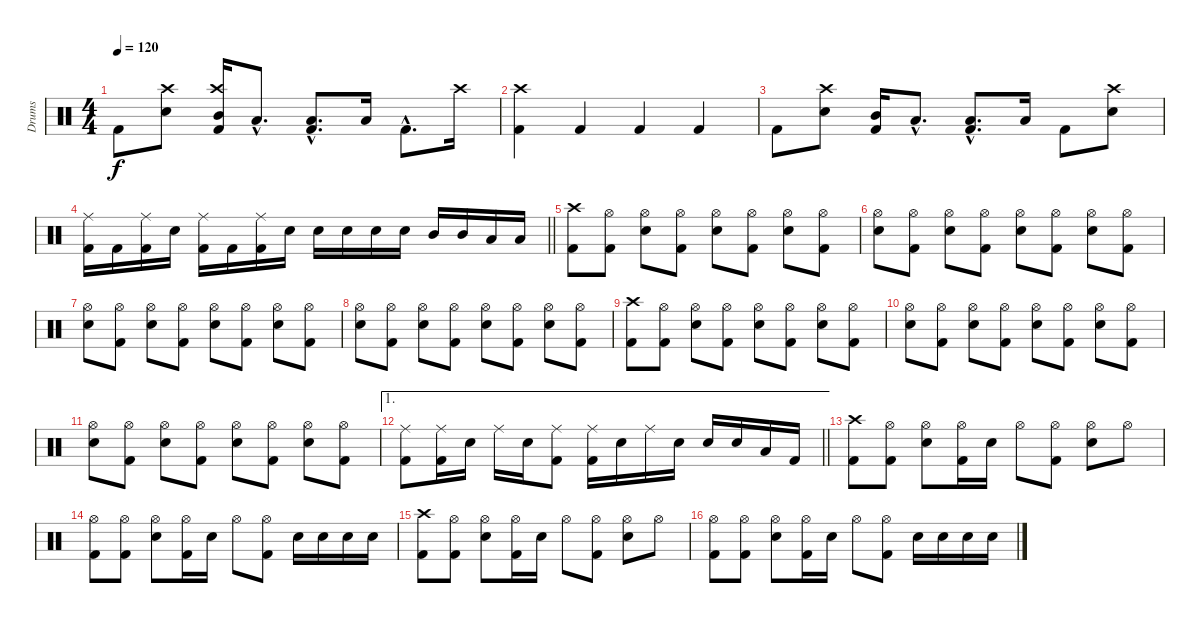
\track ("Drums" "Drums") {instrument percussion}
\staff {score}
\articulation defaults
\ts (4 4)
\tempo 120
\clef neutral
\ks c "Kick (hit) 2".8{dy f}
("Crash high (hit)" "Snare (hit) 2").8 ("Crash high (hit)" "Mid Tom (hit)" "Kick (hit) 2").16 "Low Floor Tom (hit)"{hac}.8{d} ("Low Floor Tom (hit)"{hac} "Kick (hit) 2"{hac}).8{d} "Low Floor Tom (hit)".16 "Kick (hit) 2"{hac}.8{d} "Crash high (hit)".16 |
("Crash high (hit)" "Kick (hit) 2").4 "Kick (hit) 2".4 "Kick (hit) 2".4 "Kick (hit) 2".4 |
"Kick (hit) 2".8 ("Crash high (hit)" "Snare (hit) 2").8 ("Mid Tom (hit)" "Kick (hit) 2").16 "Low Floor Tom (hit)"{hac}.8{d} ("Low Floor Tom (hit)"{hac} "Kick (hit) 2"{hac}).8{d} "Low Floor Tom (hit)".16 "Kick (hit) 2".8 ("Crash high (hit)" "Snare (hit) 2").8 |
\barLineRight lightlight
("Ride (middle)" "Kick (hit) 2").16 "Kick (hit) 2".16 ("Ride (middle)" "Kick (hit) 2").16 "Snare (hit) 2".16 ("Ride (middle)" "Kick (hit) 2").16 "Kick (hit) 2".16 ("Ride (middle)" "Kick (hit) 2").16 "Snare (hit) 2".16 "Snare (hit) 2".16 "Snare (hit) 2".16 "Snare (hit) 2".16 "Snare (hit) 2".16 "Mid Tom (hit)".16 "Mid Tom (hit)".16 "Low Floor Tom (hit)".16 "Low Floor Tom (hit)".16 |
("Crash high (hit)" "Kick (hit) 2").8 ("Hi-Hat (open)" "Kick (hit) 2").8 ("Hi-Hat (open)" "Snare (hit) 2").8 ("Hi-Hat (open)" "Kick (hit) 2").8 ("Hi-Hat (open)" "Snare (hit) 2").8 ("Hi-Hat (open)" "Kick (hit) 2").8 ("Hi-Hat (open)" "Snare (hit) 2").8 ("Hi-Hat (open)" "Kick (hit) 2").8 |
("Hi-Hat (open)" "Snare (hit) 2").8 ("Hi-Hat (open)" "Kick (hit) 2").8 ("Hi-Hat (open)" "Snare (hit) 2").8 ("Hi-Hat (open)" "Kick (hit) 2").8 ("Hi-Hat (open)" "Snare (hit) 2").8 ("Hi-Hat (open)" "Kick (hit) 2").8 ("Hi-Hat (open)" "Snare (hit) 2").8 ("Hi-Hat (open)" "Kick (hit) 2").8 |
("Hi-Hat (open)" "Snare (hit) 2").8 ("Hi-Hat (open)" "Kick (hit) 2").8 ("Hi-Hat (open)" "Snare (hit) 2").8 ("Hi-Hat (open)" "Kick (hit) 2").8 ("Hi-Hat (open)" "Snare (hit) 2").8 ("Hi-Hat (open)" "Kick (hit) 2").8 ("Hi-Hat (open)" "Snare (hit) 2").8 ("Hi-Hat (open)" "Kick (hit) 2").8 |
("Hi-Hat (open)" "Snare (hit) 2").8 ("Hi-Hat (open)" "Kick (hit) 2").8 ("Hi-Hat (open)" "Snare (hit) 2").8 ("Hi-Hat (open)" "Kick (hit) 2").8 ("Hi-Hat (open)" "Snare (hit) 2").8 ("Hi-Hat (open)" "Kick (hit) 2").8 ("Hi-Hat (open)" "Snare (hit) 2").8 ("Hi-Hat (open)" "Kick (hit) 2").8 |
("Crash high (hit)" "Kick (hit) 2").8 ("Hi-Hat (open)" "Kick (hit) 2").8 ("Hi-Hat (open)" "Snare (hit) 2").8 ("Hi-Hat (open)" "Kick (hit) 2").8 ("Hi-Hat (open)" "Snare (hit) 2").8 ("Hi-Hat (open)" "Kick (hit) 2").8 ("Hi-Hat (open)" "Snare (hit) 2").8 ("Hi-Hat (open)" "Kick (hit) 2").8 |
("Hi-Hat (open)" "Snare (hit) 2").8 ("Hi-Hat (open)" "Kick (hit) 2").8 ("Hi-Hat (open)" "Snare (hit) 2").8 ("Hi-Hat (open)" "Kick (hit) 2").8 ("Hi-Hat (open)" "Snare (hit) 2").8 ("Hi-Hat (open)" "Kick (hit) 2").8 ("Hi-Hat (open)" "Snare (hit) 2").8 ("Hi-Hat (open)" "Kick (hit) 2").8 |
("Hi-Hat (open)" "Snare (hit) 2").8 ("Hi-Hat (open)" "Kick (hit) 2").8 ("Hi-Hat (open)" "Snare (hit) 2").8 ("Hi-Hat (open)" "Kick (hit) 2").8 ("Hi-Hat (open)" "Snare (hit) 2").8 ("Hi-Hat (open)" "Kick (hit) 2").8 ("Hi-Hat (open)" "Snare (hit) 2").8 ("Hi-Hat (open)" "Kick (hit) 2").8 |
\ae 1
\barLineRight lightlight
("Ride (middle)" "Kick (hit) 2").8 ("Ride (middle)" "Kick (hit) 2").16 "Snare (hit) 2".16 "Ride (middle)".16 "Snare (hit) 2".16 ("Ride (middle)" "Kick (hit) 2").8 ("Ride (middle)" "Kick (hit) 2").16 "Snare (hit) 2".16 "Ride (middle)".16 "Snare (hit) 2".16 "Snare (hit) 2".16 "Snare (hit) 2".16 "Low Floor Tom (hit)".16 "Kick (hit) 2".16 |
("Crash high (hit)" "Kick (hit) 2").8 ("Hi-Hat (open)" "Kick (hit) 2").8 ("Hi-Hat (open)" "Snare (hit) 2").8 ("Hi-Hat (open)" "Kick (hit) 2").16 "Snare (hit) 2".16 "Hi-Hat (open)".8 ("Hi-Hat (open)" "Kick (hit) 2").8 ("Hi-Hat (open)" "Snare (hit) 2").8 "Hi-Hat (open)".8 |
("Hi-Hat (open)" "Kick (hit) 2").8 ("Hi-Hat (open)" "Kick (hit) 2").8 ("Hi-Hat (open)" "Snare (hit) 2").8 ("Hi-Hat (open)" "Kick (hit) 2").16 "Snare (hit) 2".16 "Hi-Hat (open)".8 ("Hi-Hat (open)" "Kick (hit) 2").8 "Snare (hit) 2".16 "Snare (hit) 2".16 "Snare (hit) 2".16 "Snare (hit) 2".16 |
("Crash high (hit)" "Kick (hit) 2").8 ("Hi-Hat (open)" "Kick (hit) 2").8 ("Hi-Hat (open)" "Snare (hit) 2").8 ("Hi-Hat (open)" "Kick (hit) 2").16 "Snare (hit) 2".16 "Hi-Hat (open)".8 ("Hi-Hat (open)" "Kick (hit) 2").8 ("Hi-Hat (open)" "Snare (hit) 2").8 "Hi-Hat (open)".8 |
("Hi-Hat (open)" "Kick (hit) 2").8 ("Hi-Hat (open)" "Kick (hit) 2").8 ("Hi-Hat (open)" "Snare (hit) 2").8 ("Hi-Hat (open)" "Kick (hit) 2").16 "Snare (hit) 2".16 "Hi-Hat (open)".8 ("Hi-Hat (open)" "Kick (hit) 2").8 "Snare (hit) 2".16 "Snare (hit) 2".16 "Snare (hit) 2".16 "Snare (hit) 2".16
